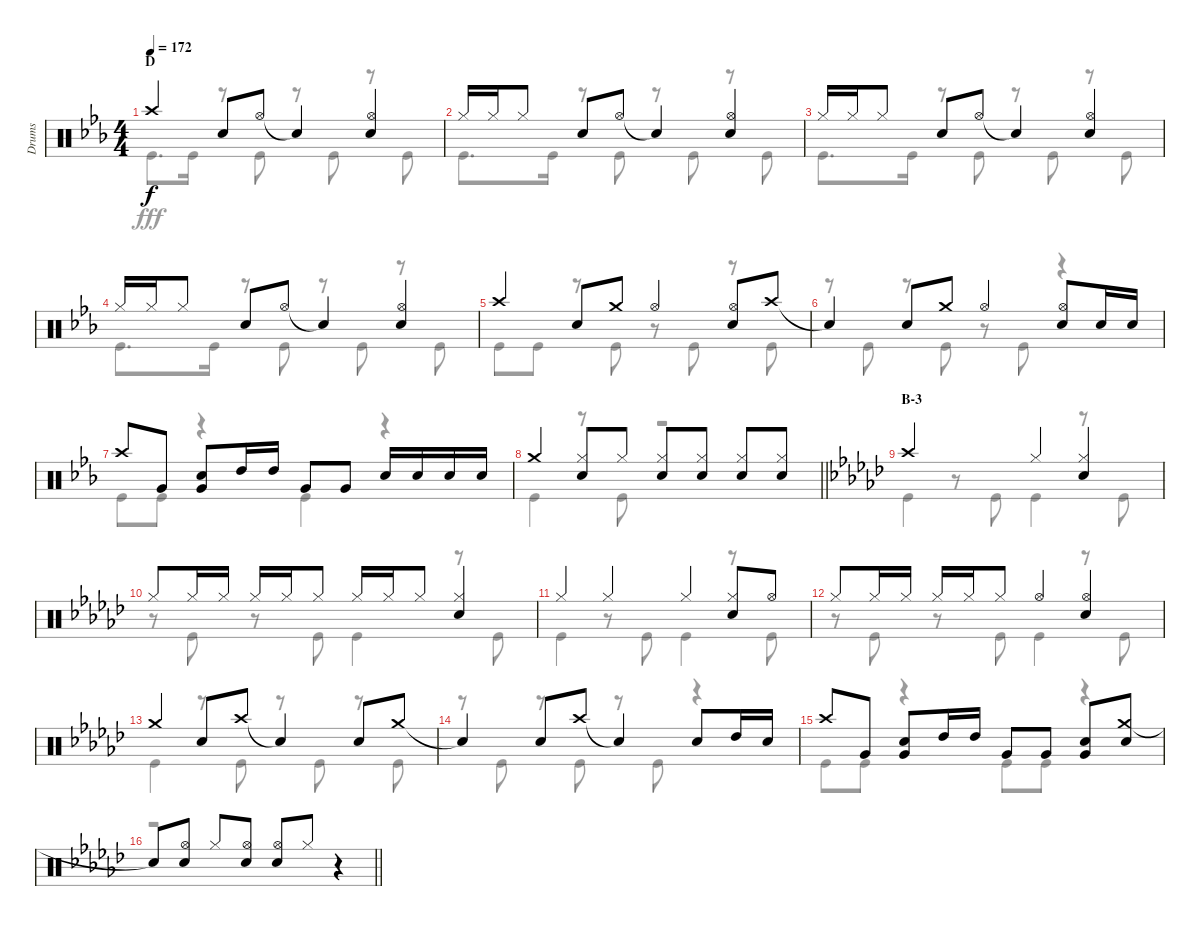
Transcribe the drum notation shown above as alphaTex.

\track ("Drums" "Drums") {instrument percussion}
\staff {score}
\articulation defaults
\voice
\ts (4 4)
\section ("" "D")
\tempo 172
\clef neutral
\ks eb "Crash high (hit)".4{dy f} "Snare (hit) 2".8 "Hi-Hat (open)".8 "Snare (hit)"{t}.4
("Hi-Hat (open)" "Snare (hit) 2").4 |
"Hi-Hat (closed)".16 "Hi-Hat (closed)".16 "Hi-Hat (closed)".8 "Snare (hit) 2".8 "Hi-Hat (open)".8 "Snare (hit)"{t}.4 ("Hi-Hat (open)" "Snare (hit) 2").4 |
"Hi-Hat (closed)".16 "Hi-Hat (closed)".16 "Hi-Hat (closed)".8 "Snare (hit) 2".8 "Hi-Hat (open)".8 "Snare (hit)"{t}.4 ("Hi-Hat (open)" "Snare (hit) 2").4 |
"Hi-Hat (closed)".16 "Hi-Hat (closed)".16 "Hi-Hat (closed)".8 "Snare (hit) 2".8 "Hi-Hat (open)".8 "Snare (hit)"{t}.4 ("Hi-Hat (open)" "Snare (hit) 2").4 |
"Crash high (hit)".4 "Snare (hit) 2".8 "Crash medium (hit)".8 "Hi-Hat (open)".4 ("Hi-Hat (open)" "Snare (hit) 2").8 "Crash high (hit)".8 |
"Snare (hit)"{t}.4 "Snare (hit) 2".8 "Crash medium (hit)".8 "Hi-Hat (open)".4 ("Hi-Hat (open)" "Snare (hit) 2").8 "Snare (hit) 2".16 "Snare (hit) 2".16 |
"Crash high (hit)".8 "Very Low Tom (hit)".8 ("Snare (hit) 2" "Very Low Tom (hit)").8 "High Tom (hit)".16 "High Tom (hit)".16 "Very Low Tom (hit)".8 "Very Low Tom (hit)".8 "Snare (hit) 2".16 "Snare (hit) 2".16 "Snare (hit) 2".16 "Snare (hit) 2".16 |
\barLineRight lightlight "Crash medium (hit)".4
("Hi-Hat (closed)" "Snare (hit) 2").8 "Hi-Hat (closed)".8 ("Hi-Hat (closed)" "Snare (hit) 2").8 ("Hi-Hat (closed)" "Snare (hit) 2").8 ("Hi-Hat (closed)" "Snare (hit) 2").8 ("Hi-Hat (closed)" "Snare (hit) 2").8 |
\section ("" "B-3")
\ks gb "Crash high (hit)".2 "Hi-Hat (closed)".4
("Hi-Hat (closed)" "Snare (hit) 2").4 |
"Hi-Hat (closed)".8 "Hi-Hat (closed)".16 "Hi-Hat (closed)".16 "Hi-Hat (closed)".16 "Hi-Hat (closed)".16 "Hi-Hat (closed)".8 "Hi-Hat (closed)".16 "Hi-Hat (closed)".16 "Hi-Hat (closed)".8 ("Hi-Hat (closed)" "Snare (hit) 2").4 |
"Hi-Hat (closed)".4 "Hi-Hat (closed)".4 "Hi-Hat (closed)".4 ("Hi-Hat (closed)" "Snare (hit) 2").8 "Hi-Hat (open)".8 |
"Hi-Hat (closed)".8 "Hi-Hat (closed)".16 "Hi-Hat (closed)".16 "Hi-Hat (closed)".16 "Hi-Hat (closed)".16 "Hi-Hat (closed)".8 "Hi-Hat (open)".4 ("Hi-Hat (open)" "Snare (hit) 2").4 |
"Crash medium (hit)".4 "Snare (hit) 2".8 "Crash high (hit)".8 "Snare (hit)"{t}.4 "Snare (hit) 2".8 "Crash medium (hit)".8 |
"Snare (hit)"{t}.4 "Snare (hit) 2".8 "Crash high (hit)".8 "Snare (hit)"{t}.4 "Snare (hit) 2".8 "High Tom (hit)".16 "Snare (hit) 2".16 |
"Crash high (hit)".8 "Very Low Tom (hit)".8 ("Snare (hit) 2" "Very Low Tom (hit)").8 "High Tom (hit)".16 "High Tom (hit)".16 "Very Low Tom (hit)".8 "Very Low Tom (hit)".8 ("Snare (hit) 2" "Very Low Tom (hit)").8 ("Crash medium (hit)" "Snare (hit) 2").8 |
\barLineRight lightlight "Snare (hit)"{t}.8
("Hi-Hat (open)" "Snare (hit) 2").8 "Hi-Hat (closed)".8 ("Hi-Hat (open)" "Snare (hit) 2").8 ("Hi-Hat (open)" "Snare (hit) 2").8 "Hi-Hat (closed)".8 r.4
\voice
\clef neutral
\ottava regular
\simile none
\ks eb "Kick (hit)".8{d dy fff} "Kick (hit)".16
r.8 "Kick (hit)".8 r.8 "Kick (hit)".8 r.8 "Kick (hit)".8 |
"Kick (hit)".8{d} "Kick (hit)".16 r.8 "Kick (hit)".8 r.8 "Kick (hit)".8 r.8 "Kick (hit)".8 |
"Kick (hit)".8{d} "Kick (hit)".16 r.8 "Kick (hit)".8 r.8 "Kick (hit)".8 r.8 "Kick (hit)".8 |
"Kick (hit)".8{d} "Kick (hit)".16 r.8 "Kick (hit)".8 r.8 "Kick (hit)".8 r.8 "Kick (hit)".8 |
"Kick (hit)".8 "Kick (hit)".8 r.8 "Kick (hit)".8 r.8 "Kick (hit)".8 r.8 "Kick (hit)".8 |
r.8 "Kick (hit)".8 r.8 "Kick (hit)".8 r.8 "Kick (hit)".8 r.4 |
"Kick (hit)".8 "Kick (hit)".8 r.4 "Kick (hit)".4 r.4 |
\barLineRight lightlight "Kick (hit)".4
r.8 "Kick (hit)".8 r.2 |
\ks gb "Kick (hit)".4
r.8 "Kick (hit)".8 "Kick (hit)".4 r.8 "Kick (hit)".8 |
r.8 "Kick (hit)".8 r.8 "Kick (hit)".8 "Kick (hit)".4 r.8 "Kick (hit)".8 |
"Kick (hit)".4 r.8 "Kick (hit)".8 "Kick (hit)".4 r.8 "Kick (hit)".8 |
r.8 "Kick (hit)".8 r.8 "Kick (hit)".8 "Kick (hit)".4 r.8 "Kick (hit)".8 |
"Kick (hit)".4 r.8 "Kick (hit)".8 r.8 "Kick (hit)".8 r.8 "Kick (hit)".8 |
r.8 "Kick (hit)".8 r.8 "Kick (hit)".8 r.8 "Kick (hit)".8 r.4 |
"Kick (hit)".8 "Kick (hit)".8 r.4 "Kick (hit)".8 "Kick (hit)".8 r.4 |
\barLineRight lightlight
r.1
